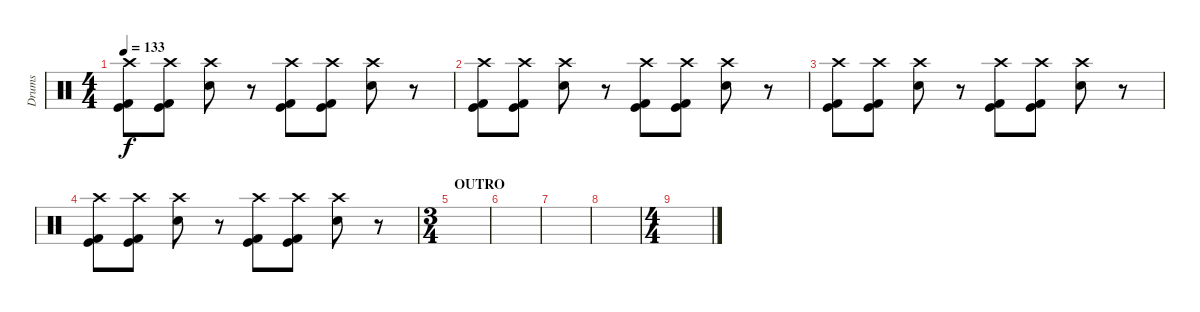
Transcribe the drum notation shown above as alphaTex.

\track ("Drums" "Drums") {instrument percussion}
\staff {score}
\articulation defaults
\ts (4 4)
\tempo 133
\clef neutral
\ks c
("Crash high (hit)" "Kick (hit) 2" "Kick (hit)").8{dy f} ("Crash high (hit)" "Kick (hit) 2" "Kick (hit)").8 ("Crash high (hit)" "Electric Snare (hit)").8 r.8 ("Crash high (hit)" "Kick (hit) 2" "Kick (hit)").8 ("Crash high (hit)" "Kick (hit) 2" "Kick (hit)").8 ("Crash high (hit)" "Electric Snare (hit)").8 r.8 |
("Crash high (hit)" "Kick (hit) 2" "Kick (hit)").8 ("Crash high (hit)" "Kick (hit) 2" "Kick (hit)").8 ("Crash high (hit)" "Electric Snare (hit)").8 r.8 ("Crash high (hit)" "Kick (hit) 2" "Kick (hit)").8 ("Crash high (hit)" "Kick (hit) 2" "Kick (hit)").8 ("Crash high (hit)" "Electric Snare (hit)").8 r.8 |
("Crash high (hit)" "Kick (hit) 2" "Kick (hit)").8 ("Crash high (hit)" "Kick (hit) 2" "Kick (hit)").8 ("Crash high (hit)" "Electric Snare (hit)").8 r.8 ("Crash high (hit)" "Kick (hit) 2" "Kick (hit)").8 ("Crash high (hit)" "Kick (hit) 2" "Kick (hit)").8 ("Crash high (hit)" "Electric Snare (hit)").8 r.8 |
("Crash high (hit)" "Kick (hit) 2" "Kick (hit)").8 ("Crash high (hit)" "Kick (hit) 2" "Kick (hit)").8 ("Crash high (hit)" "Electric Snare (hit)").8 r.8 ("Crash high (hit)" "Kick (hit) 2" "Kick (hit)").8 ("Crash high (hit)" "Kick (hit) 2" "Kick (hit)").8 ("Crash high (hit)" "Electric Snare (hit)").8 r.8 |
\ts (3 4)
\section ("" "OUTRO")
|
|
|
|
\ts (4 4)
